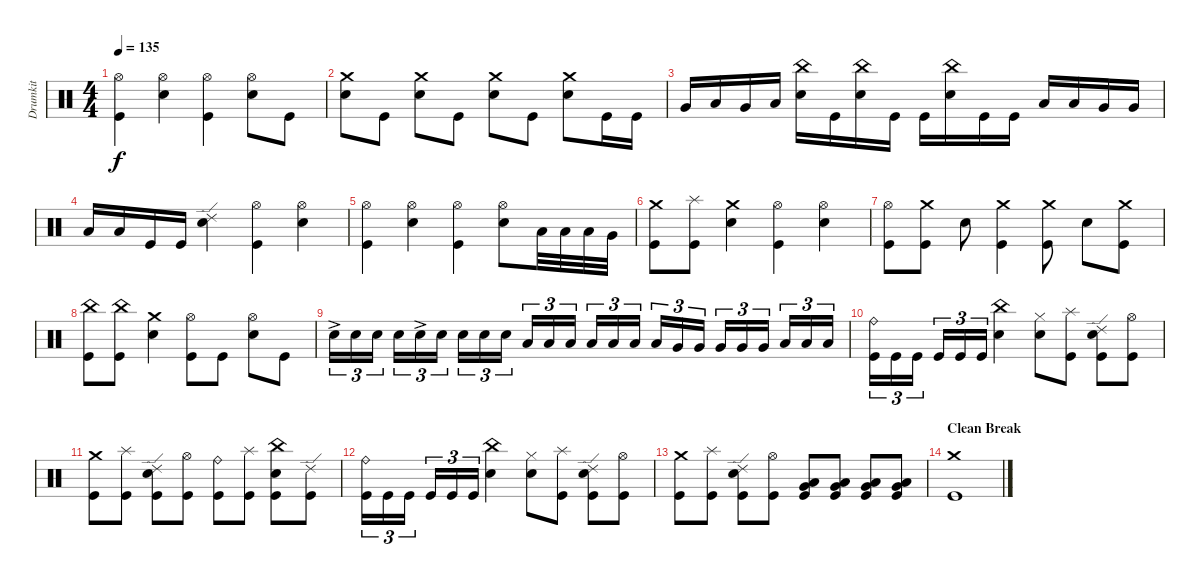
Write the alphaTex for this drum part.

\track ("Drumkit" "Drumkit") {instrument percussion}
\staff {score}
\articulation defaults
\ts (4 4)
\tempo 135
\clef neutral
\ks c
("Kick (hit)" "Hi-Hat (open)").4{dy f} ("Snare (hit) 2" "Hi-Hat (open)").4 ("Kick (hit)" "Hi-Hat (open)").4 ("Snare (hit) 2" "Hi-Hat (open)").8 "Kick (hit)".8 |
("Snare (hit) 2" "Crash medium (hit)").8 "Kick (hit)".8 ("Snare (hit) 2" "Crash medium (hit)").8 "Kick (hit)".8 ("Snare (hit) 2" "Crash medium (hit)").8 "Kick (hit)".8 ("Snare (hit) 2" "Crash medium (hit)").8 "Kick (hit)".16 "Kick (hit)".16 |
"Very Low Tom (hit)".16 "Low Floor Tom (hit)".16 "Very Low Tom (hit)".16 "Low Floor Tom (hit)".16 ("Snare (hit) 2" "China (hit)").16 "Kick (hit)".16 ("Snare (hit) 2" "China (hit)").16 "Kick (hit)".16 "Kick (hit)".16 ("Snare (hit) 2" "China (hit)").16 "Kick (hit)".16 "Kick (hit)".16 "Low Tom (hit)".16 "Low Tom (hit)".16 "Very Low Tom (hit)".16 "Very Low Tom (hit)".16 |
"Low Floor Tom (hit)".16 "Low Floor Tom (hit)".16 "Kick (hit)".16 "Kick (hit)".16 ("Snare (hit) 2" "Ride (edge) 2").4 ("Kick (hit)" "Hi-Hat (open)").4 ("Snare (hit) 2" "Hi-Hat (open)").4 |
("Kick (hit)" "Hi-Hat (open)").4 ("Snare (hit) 2" "Hi-Hat (open)").4 ("Kick (hit)" "Hi-Hat (open)").4 ("Snare (hit) 2" "Hi-Hat (open)").8 "Low Tom (hit)".32 "Low Tom (hit)".32 "Low Tom (hit)".32 "Very Low Tom (hit)".32 |
("Kick (hit)" "Crash medium (hit)").8 ("Splash (hit)" "Kick (hit)").8 ("Snare (hit) 2" "Crash medium (hit)").4 ("Kick (hit)" "Hi-Hat (open)").4 ("Snare (hit) 2" "Hi-Hat (open)").4 |
("Kick (hit)" "Hi-Hat (open)").8 ("Kick (hit)" "Crash medium (hit)").8 "Snare (hit) 2".8 ("Kick (hit)" "Crash medium (hit)").4 ("Kick (hit)" "Crash medium (hit)").8 "Snare (hit) 2".8 ("Crash medium (hit)" "Kick (hit)").8 |
("Kick (hit)" "China (hit)").8 ("Kick (hit)" "China (hit)").8 ("Snare (hit) 2" "Crash medium (hit)").4 ("Kick (hit)" "Hi-Hat (open)").8 "Kick (hit)".8 ("Snare (hit) 2" "Hi-Hat (open)").8 "Kick (hit)".8 |
"Snare (hit) 2"{ac}.16{tu (3 2)} "Snare (hit) 2".16{tu (3 2)} "Snare (hit) 2".16{tu (3 2)} "Snare (hit) 2".16{tu (3 2)} "Snare (hit) 2"{ac}.16{tu (3 2)} "Snare (hit) 2".16{tu (3 2)} "Snare (hit) 2".16{tu (3 2)} "Snare (hit) 2".16{tu (3 2)} "Snare (hit) 2".16{tu (3 2)} "Low Tom (hit)".16{tu (3 2)} "Low Tom (hit)".16{tu (3 2)} "Low Tom (hit)".16{tu (3 2)} "Low Tom (hit)".16{tu (3 2)} "Low Tom (hit)".16{tu (3 2)} "Low Tom (hit)".16{tu (3 2)} "Low Tom (hit)".16{tu (3 2)} "Very Low Tom (hit)".16{tu (3 2)} "Very Low Tom (hit)".16{tu (3 2)} "Very Low Tom (hit)".16{tu (3 2)} "Very Low Tom (hit)".16{tu (3 2)} "Very Low Tom (hit)".16{tu (3 2)} "Low Floor Tom (hit)".16{tu (3 2)} "Low Floor Tom (hit)".16{tu (3 2)} "Low Floor Tom (hit)".16{tu (3 2)} |
("Kick (hit)" "Ride (bell)").16{tu (3 2)} "Kick (hit)".16{tu (3 2)} "Kick (hit)".16{tu (3 2)} "Kick (hit)".16{tu (3 2)} "Kick (hit)".16{tu (3 2)} "Kick (hit)".16{tu (3 2)} ("Snare (hit) 2" "China (hit)").4 ("Hi-Hat (closed)" "Snare (hit) 2").8 ("Kick (hit)" "Splash (hit)").8 ("Kick (hit)" "Ride (edge) 2" "Snare (hit) 2").8 ("Kick (hit)" "Hi-Hat (open)").8 |
("Kick (hit)" "Crash medium (hit)").8 ("Kick (hit)" "Splash (hit)").8 ("Kick (hit)" "Ride (edge) 2" "Snare (hit) 2").8 ("Hi-Hat (open)" "Kick (hit)").8 ("Ride (bell)" "Kick (hit)").8 ("Kick (hit)" "Splash (hit)").8 ("Kick (hit)" "China (hit)" "Snare (hit) 2").8 ("Kick (hit)" "Ride (edge) 2").8 |
("Kick (hit)" "Ride (bell)").16{tu (3 2)} "Kick (hit)".16{tu (3 2)} "Kick (hit)".16{tu (3 2)} "Kick (hit)".16{tu (3 2)} "Kick (hit)".16{tu (3 2)} "Kick (hit)".16{tu (3 2)} ("Snare (hit) 2" "China (hit)").4 ("Hi-Hat (closed)" "Snare (hit) 2").8 ("Kick (hit)" "Splash (hit)").8 ("Kick (hit)" "Ride (edge) 2" "Snare (hit) 2").8 ("Kick (hit)" "Hi-Hat (open)").8 |
("Kick (hit)" "Crash medium (hit)").8 ("Kick (hit)" "Splash (hit)").8 ("Kick (hit)" "Ride (edge) 2" "Snare (hit) 2").8 ("Hi-Hat (open)" "Kick (hit)").8 ("Low Floor Tom (hit)" "Very Low Tom (hit)" "Kick (hit)").8 ("Very Low Tom (hit)" "Low Floor Tom (hit)" "Kick (hit)").8 ("Low Floor Tom (hit)" "Very Low Tom (hit)" "Kick (hit)").8 ("Very Low Tom (hit)" "Low Floor Tom (hit)" "Kick (hit)").8 |
\section ("" "Clean Break")
("Kick (hit)" "Crash medium (hit)").1
